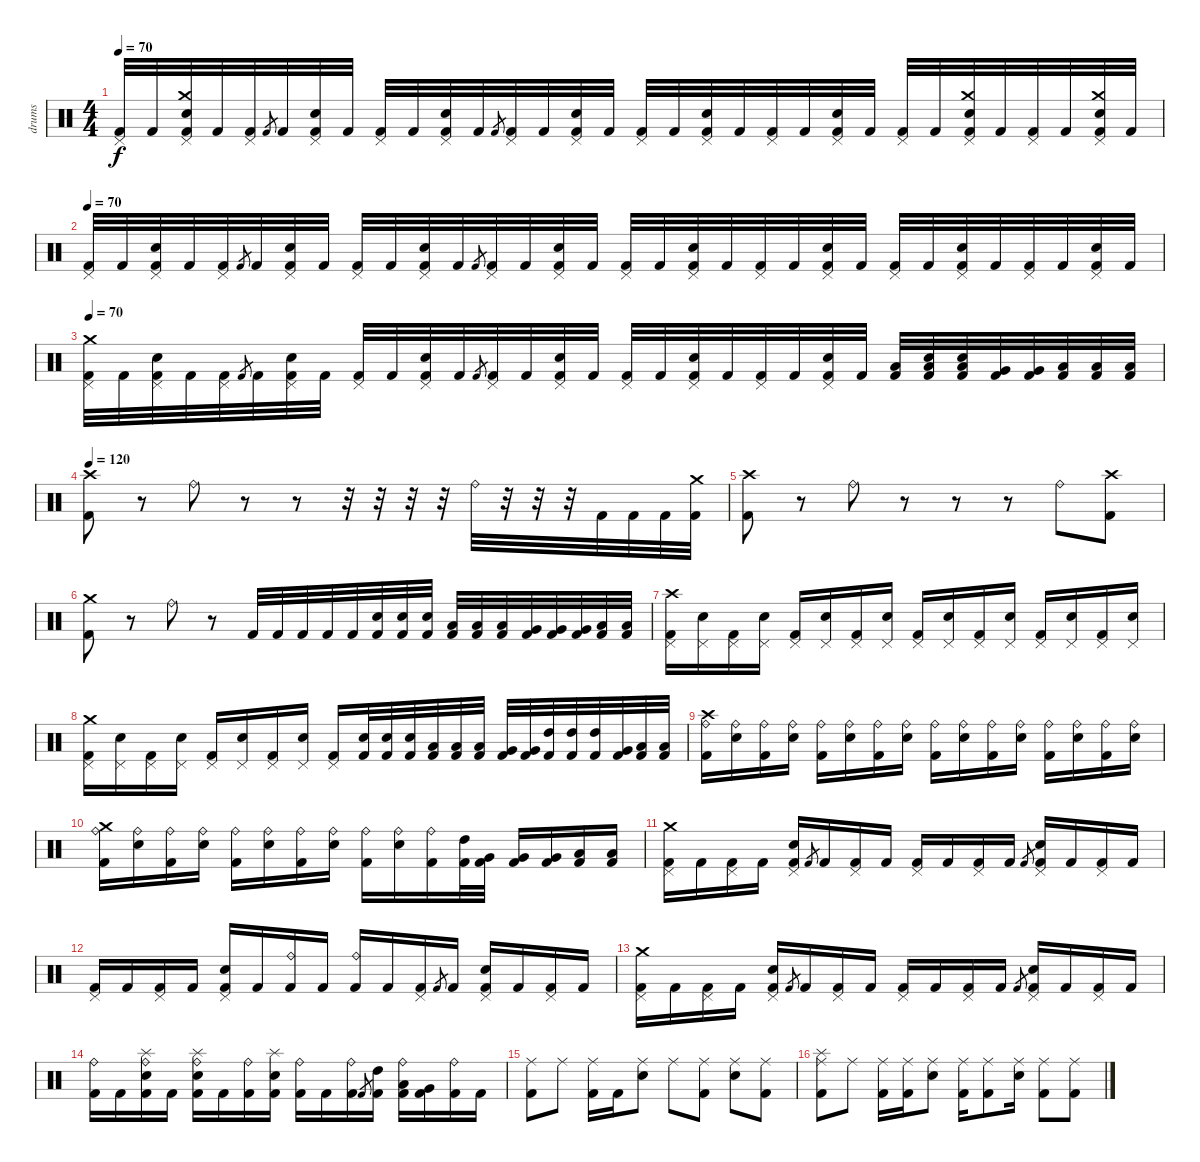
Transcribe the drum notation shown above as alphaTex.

\track ("drums" "drums") {instrument percussion}
\staff {score}
\articulation defaults
\ts (4 4)
\tempo 70
\clef neutral
\ks c
("Pedal Hi-Hat (hit)" "Kick (hit) 2").32{dy f} "Kick (hit) 2".32 ("Crash medium (hit)" "Electric Snare (hit)" "Pedal Hi-Hat (hit)" "Kick (hit) 2").32 "Kick (hit) 2".32 ("Pedal Hi-Hat (hit)" "Kick (hit) 2").32 "Kick (hit) 2".8{gr} "Kick (hit) 2".32 ("Electric Snare (hit)" "Pedal Hi-Hat (hit)" "Kick (hit) 2").32 "Kick (hit) 2".32 ("Pedal Hi-Hat (hit)" "Kick (hit) 2").32 "Kick (hit) 2".32 ("Electric Snare (hit)" "Pedal Hi-Hat (hit)" "Kick (hit) 2").32 "Kick (hit) 2".32 "Kick (hit) 2".8{gr} ("Pedal Hi-Hat (hit)" "Kick (hit) 2").32 "Kick (hit) 2".32 ("Electric Snare (hit)" "Pedal Hi-Hat (hit)" "Kick (hit) 2").32 "Kick (hit) 2".32 ("Pedal Hi-Hat (hit)" "Kick (hit) 2").32 "Kick (hit) 2".32 ("Electric Snare (hit)" "Pedal Hi-Hat (hit)" "Kick (hit) 2").32 "Kick (hit) 2".32 ("Pedal Hi-Hat (hit)" "Kick (hit) 2").32 "Kick (hit) 2".32 ("Electric Snare (hit)" "Pedal Hi-Hat (hit)" "Kick (hit) 2").32 "Kick (hit) 2".32 ("Pedal Hi-Hat (hit)" "Kick (hit) 2").32 "Kick (hit) 2".32 ("Crash medium (hit)" "Electric Snare (hit)" "Pedal Hi-Hat (hit)" "Kick (hit) 2").32 "Kick (hit) 2".32 ("Pedal Hi-Hat (hit)" "Kick (hit) 2").32 "Kick (hit) 2".32 ("Crash medium (hit)" "Electric Snare (hit)" "Pedal Hi-Hat (hit)" "Kick (hit) 2").32 "Kick (hit) 2".32 |
\tempo 70
("Pedal Hi-Hat (hit)" "Kick (hit) 2").32 "Kick (hit) 2".32 ("Electric Snare (hit)" "Pedal Hi-Hat (hit)" "Kick (hit) 2").32 "Kick (hit) 2".32 ("Pedal Hi-Hat (hit)" "Kick (hit) 2").32 "Kick (hit) 2".8{gr} "Kick (hit) 2".32 ("Electric Snare (hit)" "Pedal Hi-Hat (hit)" "Kick (hit) 2").32 "Kick (hit) 2".32 ("Pedal Hi-Hat (hit)" "Kick (hit) 2").32 "Kick (hit) 2".32 ("Electric Snare (hit)" "Pedal Hi-Hat (hit)" "Kick (hit) 2").32 "Kick (hit) 2".32 "Kick (hit) 2".8{gr} ("Pedal Hi-Hat (hit)" "Kick (hit) 2").32 "Kick (hit) 2".32 ("Electric Snare (hit)" "Pedal Hi-Hat (hit)" "Kick (hit) 2").32 "Kick (hit) 2".32 ("Pedal Hi-Hat (hit)" "Kick (hit) 2").32 "Kick (hit) 2".32 ("Electric Snare (hit)" "Pedal Hi-Hat (hit)" "Kick (hit) 2").32 "Kick (hit) 2".32 ("Pedal Hi-Hat (hit)" "Kick (hit) 2").32 "Kick (hit) 2".32 ("Electric Snare (hit)" "Pedal Hi-Hat (hit)" "Kick (hit) 2").32 "Kick (hit) 2".32 ("Pedal Hi-Hat (hit)" "Kick (hit) 2").32 "Kick (hit) 2".32 ("Electric Snare (hit)" "Pedal Hi-Hat (hit)" "Kick (hit) 2").32 "Kick (hit) 2".32 ("Pedal Hi-Hat (hit)" "Kick (hit) 2").32 "Kick (hit) 2".32 ("Electric Snare (hit)" "Pedal Hi-Hat (hit)" "Kick (hit) 2").32 "Kick (hit) 2".32 |
\tempo 70
("Crash medium (hit)" "Pedal Hi-Hat (hit)" "Kick (hit) 2").32 "Kick (hit) 2".32 ("Electric Snare (hit)" "Pedal Hi-Hat (hit)" "Kick (hit) 2").32 "Kick (hit) 2".32 ("Pedal Hi-Hat (hit)" "Kick (hit) 2").32 "Kick (hit) 2".8{gr} "Kick (hit) 2".32 ("Electric Snare (hit)" "Pedal Hi-Hat (hit)" "Kick (hit) 2").32 "Kick (hit) 2".32 ("Pedal Hi-Hat (hit)" "Kick (hit) 2").32 "Kick (hit) 2".32 ("Electric Snare (hit)" "Pedal Hi-Hat (hit)" "Kick (hit) 2").32 "Kick (hit) 2".32 "Kick (hit) 2".8{gr} ("Pedal Hi-Hat (hit)" "Kick (hit) 2").32 "Kick (hit) 2".32 ("Electric Snare (hit)" "Pedal Hi-Hat (hit)" "Kick (hit) 2").32 "Kick (hit) 2".32 ("Pedal Hi-Hat (hit)" "Kick (hit) 2").32 "Kick (hit) 2".32 ("Electric Snare (hit)" "Pedal Hi-Hat (hit)" "Kick (hit) 2").32 "Kick (hit) 2".32 ("Pedal Hi-Hat (hit)" "Kick (hit) 2").32 "Kick (hit) 2".32 ("Electric Snare (hit)" "Pedal Hi-Hat (hit)" "Kick (hit) 2").32 "Kick (hit) 2".32 ("Low Tom (hit)" "Kick (hit) 2").32 ("Electric Snare (hit)" "Low Tom (hit)" "Kick (hit) 2").32 ("Electric Snare (hit)" "Low Tom (hit)" "Kick (hit) 2").32 ("Very Low Tom (hit)" "Kick (hit) 2").32 ("Very Low Tom (hit)" "Kick (hit) 2").32 ("Low Floor Tom (hit)" "Kick (hit) 2").32 ("Low Floor Tom (hit)" "Kick (hit) 2").32 ("Low Floor Tom (hit)" "Kick (hit) 2").32 |
\tempo 120
("Crash high (hit)" "Kick (hit) 2").8 r.8 "Ride (bell)".8 r.8 r.8 r.32 r.32 r.32 r.32 "Ride (bell)".32 r.32 r.32 r.32 "Kick (hit) 2".32 "Kick (hit) 2".32 "Kick (hit) 2".32 ("Crash medium (hit)" "Kick (hit) 2").32 |
("Crash high (hit)" "Kick (hit) 2").8 r.8 "Ride (bell)".8 r.8 r.8 r.8 "Ride (bell)".8 ("Crash high (hit)" "Kick (hit) 2").8 |
("Crash medium (hit)" "Kick (hit) 2").8 r.8 "Ride (bell)".8 r.8 "Kick (hit) 2".32 "Kick (hit) 2".32 "Kick (hit) 2".32 "Kick (hit) 2".32 "Kick (hit) 2".32 ("Electric Snare (hit)" "Kick (hit) 2").32 ("Electric Snare (hit)" "Kick (hit) 2").32 ("Electric Snare (hit)" "Kick (hit) 2").32 ("Low Tom (hit)" "Kick (hit) 2").32 ("Low Tom (hit)" "Kick (hit) 2").32 ("Low Tom (hit)" "Kick (hit) 2").32 ("Very Low Tom (hit)" "Kick (hit) 2").32 ("Very Low Tom (hit)" "Kick (hit) 2").32 ("Very Low Tom (hit)" "Kick (hit) 2").32 ("Low Floor Tom (hit)" "Kick (hit) 2").32 ("Low Floor Tom (hit)" "Kick (hit) 2").32 |
("Crash high (hit)" "Pedal Hi-Hat (hit)" "Kick (hit) 2").16 ("Pedal Hi-Hat (hit)" "Electric Snare (hit)").16 ("Pedal Hi-Hat (hit)" "Kick (hit) 2").16 ("Pedal Hi-Hat (hit)" "Electric Snare (hit)").16 ("Pedal Hi-Hat (hit)" "Kick (hit) 2").16 ("Pedal Hi-Hat (hit)" "Electric Snare (hit)").16 ("Pedal Hi-Hat (hit)" "Kick (hit) 2").16 ("Pedal Hi-Hat (hit)" "Electric Snare (hit)").16 ("Pedal Hi-Hat (hit)" "Kick (hit) 2").16 ("Pedal Hi-Hat (hit)" "Electric Snare (hit)").16 ("Pedal Hi-Hat (hit)" "Kick (hit) 2").16 ("Pedal Hi-Hat (hit)" "Electric Snare (hit)").16 ("Pedal Hi-Hat (hit)" "Kick (hit) 2").16 ("Pedal Hi-Hat (hit)" "Electric Snare (hit)").16 ("Pedal Hi-Hat (hit)" "Kick (hit) 2").16 ("Pedal Hi-Hat (hit)" "Electric Snare (hit)").16 |
("Crash medium (hit)" "Pedal Hi-Hat (hit)" "Kick (hit) 2").16 ("Pedal Hi-Hat (hit)" "Electric Snare (hit)").16 ("Pedal Hi-Hat (hit)" "Kick (hit) 2").16 ("Pedal Hi-Hat (hit)" "Electric Snare (hit)").16 ("Pedal Hi-Hat (hit)" "Kick (hit) 2").16 ("Pedal Hi-Hat (hit)" "Electric Snare (hit)").16 ("Pedal Hi-Hat (hit)" "Kick (hit) 2").16 ("Pedal Hi-Hat (hit)" "Electric Snare (hit)").16 ("Pedal Hi-Hat (hit)" "Kick (hit) 2").16 ("Electric Snare (hit)" "Kick (hit) 2").32 ("Electric Snare (hit)" "Kick (hit) 2").32 ("Electric Snare (hit)" "Kick (hit) 2").32 ("Low Tom (hit)" "Kick (hit) 2").32 ("Low Tom (hit)" "Kick (hit) 2").32 ("Low Tom (hit)" "Kick (hit) 2").32 ("Very Low Tom (hit)" "Kick (hit) 2").32 ("Very Low Tom (hit)" "Kick (hit) 2").32 ("High Tom (hit)" "Kick (hit) 2").32 ("High Tom (hit)" "Kick (hit) 2").32 ("High Tom (hit)" "Kick (hit) 2").32 ("Very Low Tom (hit)" "Kick (hit) 2").32 ("Low Floor Tom (hit)" "Kick (hit) 2").32 ("Low Floor Tom (hit)" "Kick (hit) 2").32 |
("Crash high (hit)" "Ride (bell)" "Kick (hit) 2").16 ("Ride (bell)" "Electric Snare (hit)").16 ("Ride (bell)" "Kick (hit) 2").16 ("Ride (bell)" "Electric Snare (hit)").16 ("Ride (bell)" "Kick (hit) 2").16 ("Ride (bell)" "Electric Snare (hit)").16 ("Ride (bell)" "Kick (hit) 2").16 ("Ride (bell)" "Electric Snare (hit)").16 ("Ride (bell)" "Kick (hit) 2").16 ("Ride (bell)" "Electric Snare (hit)").16 ("Ride (bell)" "Kick (hit) 2").16 ("Ride (bell)" "Electric Snare (hit)").16 ("Ride (bell)" "Kick (hit) 2").16 ("Ride (bell)" "Electric Snare (hit)").16 ("Ride (bell)" "Kick (hit) 2").16 ("Ride (bell)" "Electric Snare (hit)").16 |
("Crash medium (hit)" "Ride (bell)" "Kick (hit) 2").16 ("Ride (bell)" "Electric Snare (hit)").16 ("Ride (bell)" "Kick (hit) 2").16 ("Ride (bell)" "Electric Snare (hit)").16 ("Ride (bell)" "Kick (hit) 2").16 ("Ride (bell)" "Electric Snare (hit)").16 ("Ride (bell)" "Kick (hit) 2").16 ("Ride (bell)" "Electric Snare (hit)").16 ("Ride (bell)" "Kick (hit) 2").16 ("Ride (bell)" "Electric Snare (hit)").16 ("Ride (bell)" "Kick (hit) 2").16 ("High Tom (hit)" "Kick (hit) 2").32 ("Very Low Tom (hit)" "Kick (hit) 2").32 ("Very Low Tom (hit)" "Kick (hit) 2").16 ("Very Low Tom (hit)" "Kick (hit) 2").16 ("Low Floor Tom (hit)" "Kick (hit) 2").16 ("Low Floor Tom (hit)" "Kick (hit) 2").16 |
("Crash medium (hit)" "Pedal Hi-Hat (hit)" "Kick (hit) 2").16 "Kick (hit) 2".16 ("Pedal Hi-Hat (hit)" "Kick (hit) 2").16 "Kick (hit) 2".16 ("Electric Snare (hit)" "Pedal Hi-Hat (hit)" "Kick (hit) 2").16 "Kick (hit) 2".8{gr} "Kick (hit) 2".16 ("Pedal Hi-Hat (hit)" "Kick (hit) 2").16 "Kick (hit) 2".16 ("Pedal Hi-Hat (hit)" "Kick (hit) 2").16 "Kick (hit) 2".16 ("Pedal Hi-Hat (hit)" "Kick (hit) 2").16 "Kick (hit) 2".16 "Kick (hit) 2".8{gr} ("Electric Snare (hit)" "Pedal Hi-Hat (hit)" "Kick (hit) 2").16 "Kick (hit) 2".16 ("Pedal Hi-Hat (hit)" "Kick (hit) 2").16 "Kick (hit) 2".16 |
("Pedal Hi-Hat (hit)" "Kick (hit) 2").16 "Kick (hit) 2".16 ("Pedal Hi-Hat (hit)" "Kick (hit) 2").16 "Kick (hit) 2".16 ("Electric Snare (hit)" "Pedal Hi-Hat (hit)" "Kick (hit) 2").16 "Kick (hit) 2".16 ("Ride (bell)" "Kick (hit) 2").16 "Kick (hit) 2".16 ("Ride (bell)" "Kick (hit) 2").16 "Kick (hit) 2".16 ("Pedal Hi-Hat (hit)" "Kick (hit) 2").16 "Kick (hit) 2".8{gr} "Kick (hit) 2".16 ("Electric Snare (hit)" "Pedal Hi-Hat (hit)" "Kick (hit) 2").16 "Kick (hit) 2".16 ("Pedal Hi-Hat (hit)" "Kick (hit) 2").16 "Kick (hit) 2".16 |
("Crash medium (hit)" "Pedal Hi-Hat (hit)" "Kick (hit) 2").16 "Kick (hit) 2".16 ("Pedal Hi-Hat (hit)" "Kick (hit) 2").16 "Kick (hit) 2".16 ("Electric Snare (hit)" "Pedal Hi-Hat (hit)" "Kick (hit) 2").16 "Kick (hit) 2".8{gr} "Kick (hit) 2".16 ("Pedal Hi-Hat (hit)" "Kick (hit) 2").16 "Kick (hit) 2".16 ("Pedal Hi-Hat (hit)" "Kick (hit) 2").16 "Kick (hit) 2".16 ("Pedal Hi-Hat (hit)" "Kick (hit) 2").16 "Kick (hit) 2".16 "Kick (hit) 2".8{gr} ("Electric Snare (hit)" "Pedal Hi-Hat (hit)" "Kick (hit) 2").16 "Kick (hit) 2".16 ("Pedal Hi-Hat (hit)" "Kick (hit) 2").16 "Kick (hit) 2".16 |
("Ride (bell)" "Kick (hit) 2").16 "Kick (hit) 2".16 ("Splash (hit)" "Electric Snare (hit)" "Ride (bell)" "Kick (hit) 2").16 "Kick (hit) 2".16 ("Splash (hit)" "Electric Snare (hit)" "Ride (bell)" "Kick (hit) 2").16 "Kick (hit) 2".16 ("Ride (bell)" "Kick (hit) 2").16 ("Splash (hit)" "Electric Snare (hit)" "Kick (hit) 2").16 ("Ride (bell)" "Kick (hit) 2").16 "Kick (hit) 2".16 ("Ride (bell)" "Kick (hit) 2").16 "Kick (hit) 2".8{gr} ("High Tom (hit)" "Kick (hit) 2").16 ("Low Tom (hit)" "Ride (bell)" "Kick (hit) 2").16 ("Very Low Tom (hit)" "Kick (hit) 2").16 ("Ride (bell)" "Kick (hit) 2").16 "Kick (hit) 2".16 |
("Ride (middle)" "Kick (hit) 2").8 "Ride (middle)".8 ("Ride (middle)" "Kick (hit) 2").16 "Kick (hit) 2".16 ("Ride (middle)" "Electric Snare (hit)").8 "Ride (middle)".8 ("Ride (middle)" "Kick (hit) 2").8 ("Ride (middle)" "Electric Snare (hit)").8 ("Ride (middle)" "Kick (hit) 2").8 |
("Splash (hit)" "Ride (middle)" "Kick (hit) 2").8 "Ride (middle)".8 ("Ride (middle)" "Kick (hit) 2").16 ("Ride (middle)" "Kick (hit) 2").16 ("Ride (middle)" "Electric Snare (hit)").8 ("Ride (middle)" "Kick (hit) 2").16 ("Ride (middle)" "Kick (hit) 2").8 ("Ride (middle)" "Electric Snare (hit)").16 ("Ride (middle)" "Kick (hit) 2").8 ("Kick (hit) 2" "Ride (middle)").8
